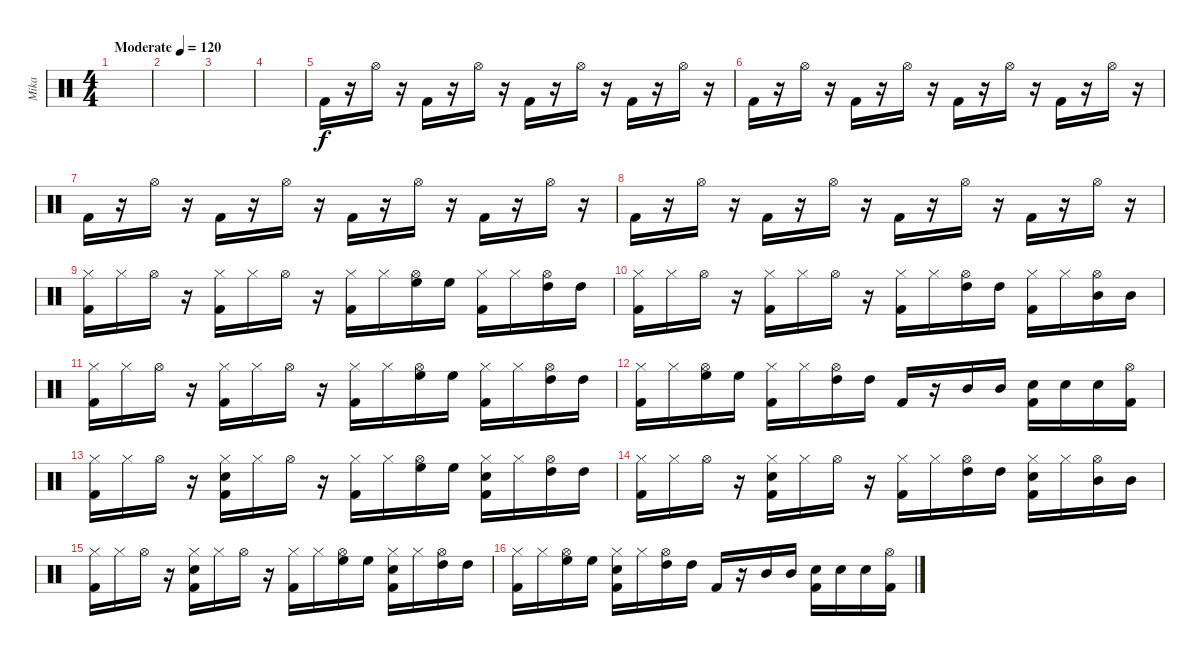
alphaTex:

\track ("Mika" "Mika") {instrument percussion}
\staff {score}
\articulation defaults
\ts (4 4)
\tempo (120 "Moderate")
\clef neutral
\ks c
|
|
|
|
"Kick (hit) 2".16 r.16 "Hi-Hat (open)".16 r.16 "Kick (hit) 2".16 r.16 "Hi-Hat (open)".16 r.16 "Kick (hit) 2".16 r.16 "Hi-Hat (open)".16 r.16 "Kick (hit) 2".16 r.16 "Hi-Hat (open)".16 r.16 |
"Kick (hit) 2".16 r.16 "Hi-Hat (open)".16 r.16 "Kick (hit) 2".16 r.16 "Hi-Hat (open)".16 r.16 "Kick (hit) 2".16 r.16 "Hi-Hat (open)".16 r.16 "Kick (hit) 2".16 r.16 "Hi-Hat (open)".16 r.16 |
"Kick (hit) 2".16 r.16 "Hi-Hat (open)".16 r.16 "Kick (hit) 2".16 r.16 "Hi-Hat (open)".16 r.16 "Kick (hit) 2".16 r.16 "Hi-Hat (open)".16 r.16 "Kick (hit) 2".16 r.16 "Hi-Hat (open)".16 r.16 |
"Kick (hit) 2".16 r.16 "Hi-Hat (open)".16 r.16 "Kick (hit) 2".16 r.16 "Hi-Hat (open)".16 r.16 "Kick (hit) 2".16 r.16 "Hi-Hat (open)".16 r.16 "Kick (hit) 2".16 r.16 "Hi-Hat (open)".16 r.16 |
("Hi-Hat (closed)" "Kick (hit) 2").16 "Hi-Hat (closed)".16 "Hi-Hat (open)".16 r.16 ("Hi-Hat (closed)" "Kick (hit) 2").16 "Hi-Hat (closed)".16 "Hi-Hat (open)".16 r.16 ("Hi-Hat (closed)" "Kick (hit) 2").16 "Hi-Hat (closed)".16 ("Hi-Hat (open)" "High Floor Tom (hit)").16 "High Floor Tom (hit)".16 ("Hi-Hat (closed)" "Kick (hit) 2").16 "Hi-Hat (closed)".16 ("Hi-Hat (open)" "High Tom (hit)").16 "High Tom (hit)".16 |
("Hi-Hat (closed)" "Kick (hit) 2").16 "Hi-Hat (closed)".16 "Hi-Hat (open)".16 r.16 ("Hi-Hat (closed)" "Kick (hit) 2").16 "Hi-Hat (closed)".16 "Hi-Hat (open)".16 r.16 ("Hi-Hat (closed)" "Kick (hit) 2").16 "Hi-Hat (closed)".16 ("Hi-Hat (open)" "High Tom (hit)").16 "High Tom (hit)".16 ("Hi-Hat (closed)" "Kick (hit) 2").16 "Hi-Hat (closed)".16 ("Hi-Hat (open)" "Mid Tom (hit)").16 "Mid Tom (hit)".16 |
("Hi-Hat (closed)" "Kick (hit) 2").16 "Hi-Hat (closed)".16 "Hi-Hat (open)".16 r.16 ("Hi-Hat (closed)" "Kick (hit) 2").16 "Hi-Hat (closed)".16 "Hi-Hat (open)".16 r.16 ("Hi-Hat (closed)" "Kick (hit) 2").16 "Hi-Hat (closed)".16 ("Hi-Hat (open)" "High Floor Tom (hit)").16 "High Floor Tom (hit)".16 ("Hi-Hat (closed)" "Kick (hit) 2").16 "Hi-Hat (closed)".16 ("Hi-Hat (open)" "High Tom (hit)").16 "High Tom (hit)".16 |
("Hi-Hat (closed)" "Kick (hit) 2").16 "Hi-Hat (closed)".16 ("Hi-Hat (open)" "High Floor Tom (hit)").16 "High Floor Tom (hit)".16 ("Hi-Hat (closed)" "Kick (hit) 2").16 "Hi-Hat (closed)".16 ("Hi-Hat (open)" "High Tom (hit)").16 "High Tom (hit)".16 "Kick (hit) 2".16 r.16 "Mid Tom (hit)".16 "Mid Tom (hit)".16 ("Electric Snare (hit)" "Kick (hit) 2").16 "Electric Snare (hit)".16 "Electric Snare (hit)".16 ("Hi-Hat (open)" "Kick (hit) 2").16 |
("Hi-Hat (closed)" "Kick (hit) 2").16 "Hi-Hat (closed)".16 "Hi-Hat (open)".16 r.16 ("Hi-Hat (closed)" "Electric Snare (hit)" "Kick (hit) 2").16 "Hi-Hat (closed)".16 "Hi-Hat (open)".16 r.16 ("Hi-Hat (closed)" "Kick (hit) 2").16 "Hi-Hat (closed)".16 ("Hi-Hat (open)" "High Floor Tom (hit)").16 "High Floor Tom (hit)".16 ("Hi-Hat (closed)" "Electric Snare (hit)" "Kick (hit) 2").16 "Hi-Hat (closed)".16 ("Hi-Hat (open)" "High Tom (hit)").16 "High Tom (hit)".16 |
("Hi-Hat (closed)" "Kick (hit) 2").16 "Hi-Hat (closed)".16 "Hi-Hat (open)".16 r.16 ("Hi-Hat (closed)" "Electric Snare (hit)" "Kick (hit) 2").16 "Hi-Hat (closed)".16 "Hi-Hat (open)".16 r.16 ("Hi-Hat (closed)" "Kick (hit) 2").16 "Hi-Hat (closed)".16 ("Hi-Hat (open)" "High Tom (hit)").16 "High Tom (hit)".16 ("Hi-Hat (closed)" "Electric Snare (hit)" "Kick (hit) 2").16 "Hi-Hat (closed)".16 ("Hi-Hat (open)" "Mid Tom (hit)").16 "Mid Tom (hit)".16 |
("Hi-Hat (closed)" "Kick (hit) 2").16 "Hi-Hat (closed)".16 "Hi-Hat (open)".16 r.16 ("Hi-Hat (closed)" "Electric Snare (hit)" "Kick (hit) 2").16 "Hi-Hat (closed)".16 "Hi-Hat (open)".16 r.16 ("Hi-Hat (closed)" "Kick (hit) 2").16 "Hi-Hat (closed)".16 ("Hi-Hat (open)" "High Floor Tom (hit)").16 "High Floor Tom (hit)".16 ("Hi-Hat (closed)" "Electric Snare (hit)" "Kick (hit) 2").16 "Hi-Hat (closed)".16 ("Hi-Hat (open)" "High Tom (hit)").16 "High Tom (hit)".16 |
("Hi-Hat (closed)" "Kick (hit) 2").16 "Hi-Hat (closed)".16 ("Hi-Hat (open)" "High Floor Tom (hit)").16 "High Floor Tom (hit)".16 ("Hi-Hat (closed)" "Electric Snare (hit)" "Kick (hit) 2").16 "Hi-Hat (closed)".16 ("Hi-Hat (open)" "High Tom (hit)").16 "High Tom (hit)".16 "Kick (hit) 2".16 r.16 "Mid Tom (hit)".16 "Mid Tom (hit)".16 ("Electric Snare (hit)" "Kick (hit) 2").16 "Electric Snare (hit)".16 "Electric Snare (hit)".16 ("Hi-Hat (open)" "Kick (hit) 2").16
